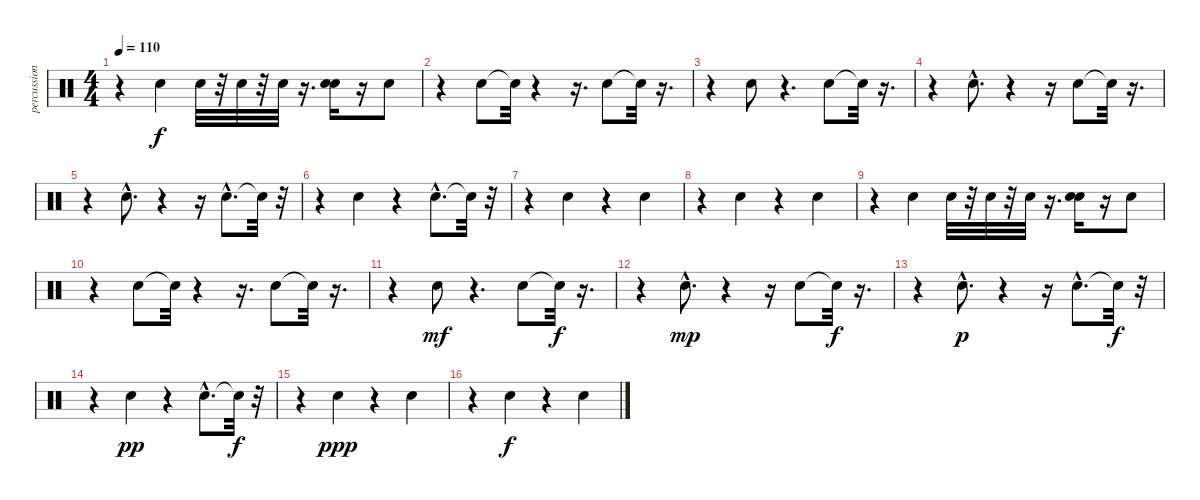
\track ("percussions 3" "percussion") {instrument percussion}
\staff {score}
\articulation defaults
\ts (4 4)
\tempo 110
\clef neutral
\ks c
r.4{dy f} "Electric Snare (hit)".4 "Electric Snare (hit)".32 r.32 "Electric Snare (hit)".32 r.32 "Electric Snare (hit)".32 r.16{d} ("Electric Snare (hit)" "Electric Snare (hit)").16 r.16 "Electric Snare (hit)".8 |
r.4 "Electric Snare (hit)".8 "Snare (hit)"{t}.32 r.4 r.16{d} "Electric Snare (hit)".8 "Snare (hit)"{t}.32 r.16{d} |
r.4 "Electric Snare (hit)".8 r.4{d} "Electric Snare (hit)".8 "Snare (hit)"{t}.32 r.16{d} |
r.4 "Electric Snare (hit)"{hac}.8{d} r.4 r.16 "Electric Snare (hit)".8 "Snare (hit)"{t}.32 r.16{d} |
r.4 "Electric Snare (hit)"{hac}.8{d} r.4 r.16 "Electric Snare (hit)"{hac}.8{d} "Snare (hit)"{t}.32 r.32 |
r.4 "Electric Snare (hit)".4 r.4 "Electric Snare (hit)"{hac}.8{d} "Snare (hit)"{t}.32 r.32 |
r.4 "Electric Snare (hit)".4 r.4 "Electric Snare (hit)".4 |
r.4 "Electric Snare (hit)".4 r.4 "Electric Snare (hit)".4 |
r.4 "Electric Snare (hit)".4 "Electric Snare (hit)".32 r.32 "Electric Snare (hit)".32 r.32 "Electric Snare (hit)".32 r.16{d} ("Electric Snare (hit)" "Electric Snare (hit)").16 r.16 "Electric Snare (hit)".8 |
r.4 "Electric Snare (hit)".8 "Snare (hit)"{t}.32 r.4 r.16{d} "Electric Snare (hit)".8 "Snare (hit)"{t}.32 r.16{d} |
r.4 "Electric Snare (hit)".8{dy mf} r.4{d} "Electric Snare (hit)".8 "Snare (hit)"{t}.32{dy f} r.16{d} |
r.4 "Electric Snare (hit)"{hac}.8{d dy mp} r.4 r.16 "Electric Snare (hit)".8 "Snare (hit)"{t}.32{dy f} r.16{d} |
r.4 "Electric Snare (hit)"{hac}.8{d dy p} r.4 r.16 "Electric Snare (hit)"{hac}.8{d} "Snare (hit)"{t}.32{dy f} r.32 |
r.4 "Electric Snare (hit)".4{dy pp} r.4 "Electric Snare (hit)"{hac}.8{d} "Snare (hit)"{t}.32{dy f} r.32 |
r.4 "Electric Snare (hit)".4{dy ppp} r.4 "Electric Snare (hit)".4 |
r.4 "Electric Snare (hit)".4{dy f} r.4 "Electric Snare (hit)".4
